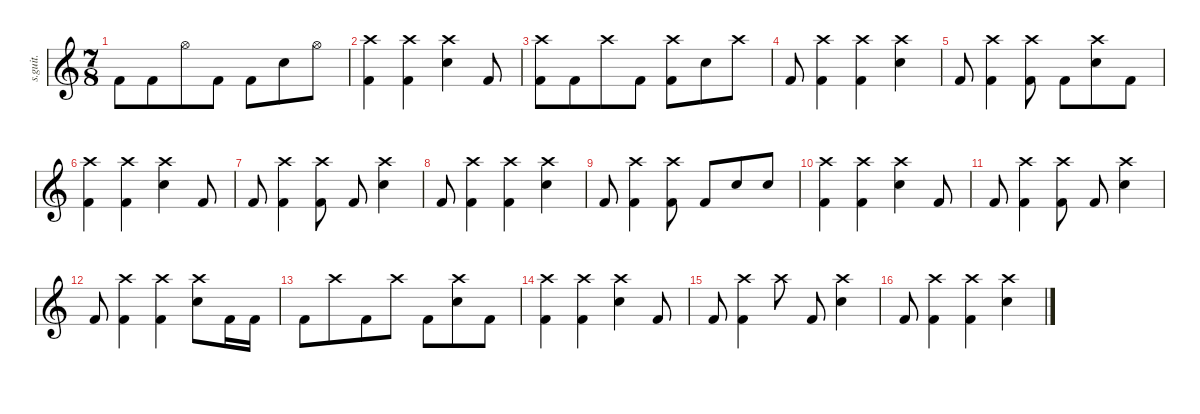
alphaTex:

\defaultSystemsLayout 4
\hideDynamics
\bracketExtendMode nobrackets
\track ("" "s.guit.") {instrument percussion}
\staff {score}
\articulation defaults
\ts (7 8)
\tempo (212 hide)
\clef g2
\ks c "Kick (hit) 2".8{lyrics (0 "") lyrics (1 "") lyrics (2 "") lyrics (3 "") lyrics (4 "") dy f} "Kick (hit) 2".8{lyrics (0 "") lyrics (1 "") lyrics (2 "") lyrics (3 "") lyrics (4 "")} "Hi-Hat (open)".8{lyrics (0 "") lyrics (1 "") lyrics (2 "") lyrics (3 "") lyrics (4 "")} "Kick (hit) 2".8{lyrics (0 "") lyrics (1 "") lyrics (2 "") lyrics (3 "") lyrics (4 "")} "Kick (hit) 2".8{lyrics (0 "") lyrics (1 "") lyrics (2 "") lyrics (3 "") lyrics (4 "")} "Snare (hit) 2".8{lyrics (0 "") lyrics (1 "") lyrics (2 "") lyrics (3 "") lyrics (4 "")} "Hi-Hat (open)".8{lyrics (0 "") lyrics (1 "") lyrics (2 "") lyrics (3 "") lyrics (4 "")}
|
("Kick (hit) 2" "Crash high (hit)").4{lyrics (0 "") lyrics (1 "") lyrics (2 "") lyrics (3 "") lyrics (4 "")} ("Kick (hit) 2" "Crash high (hit)").4{lyrics (0 "") lyrics (1 "") lyrics (2 "") lyrics (3 "") lyrics (4 "")} ("Snare (hit) 2" "Crash high (hit)").4{lyrics (0 "") lyrics (1 "") lyrics (2 "") lyrics (3 "") lyrics (4 "")} "Kick (hit) 2".8{lyrics (0 "") lyrics (1 "") lyrics (2 "") lyrics (3 "") lyrics (4 "")} |
("Kick (hit) 2" "Crash high (hit)").8{lyrics (0 "") lyrics (1 "") lyrics (2 "") lyrics (3 "") lyrics (4 "")} "Kick (hit) 2".8{lyrics (0 "") lyrics (1 "") lyrics (2 "") lyrics (3 "") lyrics (4 "")} "Crash high (hit)".8{lyrics (0 "") lyrics (1 "") lyrics (2 "") lyrics (3 "") lyrics (4 "")} "Kick (hit) 2".8{lyrics (0 "") lyrics (1 "") lyrics (2 "") lyrics (3 "") lyrics (4 "")} ("Kick (hit) 2" "Crash high (hit)").8{lyrics (0 "") lyrics (1 "") lyrics (2 "") lyrics (3 "") lyrics (4 "")} "Snare (hit) 2".8{lyrics (0 "") lyrics (1 "") lyrics (2 "") lyrics (3 "") lyrics (4 "")} "Crash high (hit)".8{lyrics (0 "") lyrics (1 "") lyrics (2 "") lyrics (3 "") lyrics (4 "")} |
"Kick (hit) 2".8{lyrics (0 "") lyrics (1 "") lyrics (2 "") lyrics (3 "") lyrics (4 "")} ("Kick (hit) 2" "Crash high (hit)").4{lyrics (0 "") lyrics (1 "") lyrics (2 "") lyrics (3 "") lyrics (4 "")} ("Kick (hit) 2" "Crash high (hit)").4{lyrics (0 "") lyrics (1 "") lyrics (2 "") lyrics (3 "") lyrics (4 "")} ("Snare (hit) 2" "Crash high (hit)").4{lyrics (0 "") lyrics (1 "") lyrics (2 "") lyrics (3 "") lyrics (4 "")} |
"Kick (hit) 2".8{lyrics (0 "") lyrics (1 "") lyrics (2 "") lyrics (3 "") lyrics (4 "")} ("Kick (hit) 2" "Crash high (hit)").4{lyrics (0 "") lyrics (1 "") lyrics (2 "") lyrics (3 "") lyrics (4 "")} ("Kick (hit) 2" "Crash high (hit)").8{lyrics (0 "") lyrics (1 "") lyrics (2 "") lyrics (3 "") lyrics (4 "")} "Kick (hit) 2".8{lyrics (0 "") lyrics (1 "") lyrics (2 "") lyrics (3 "") lyrics (4 "")} ("Snare (hit) 2" "Crash high (hit)").8{lyrics (0 "") lyrics (1 "") lyrics (2 "") lyrics (3 "") lyrics (4 "")} "Kick (hit) 2".8{lyrics (0 "") lyrics (1 "") lyrics (2 "") lyrics (3 "") lyrics (4 "")} |
("Kick (hit) 2" "Crash high (hit)").4{lyrics (0 "") lyrics (1 "") lyrics (2 "") lyrics (3 "") lyrics (4 "")} ("Kick (hit) 2" "Crash high (hit)").4{lyrics (0 "") lyrics (1 "") lyrics (2 "") lyrics (3 "") lyrics (4 "")} ("Snare (hit) 2" "Crash high (hit)").4{lyrics (0 "") lyrics (1 "") lyrics (2 "") lyrics (3 "") lyrics (4 "")} "Kick (hit) 2".8{lyrics (0 "") lyrics (1 "") lyrics (2 "") lyrics (3 "") lyrics (4 "")} |
"Kick (hit) 2".8{lyrics (0 "") lyrics (1 "") lyrics (2 "") lyrics (3 "") lyrics (4 "")} ("Kick (hit) 2" "Crash high (hit)").4{lyrics (0 "") lyrics (1 "") lyrics (2 "") lyrics (3 "") lyrics (4 "")} ("Kick (hit) 2" "Crash high (hit)").8{lyrics (0 "") lyrics (1 "") lyrics (2 "") lyrics (3 "") lyrics (4 "")} "Kick (hit) 2".8{lyrics (0 "") lyrics (1 "") lyrics (2 "") lyrics (3 "") lyrics (4 "")} ("Snare (hit) 2" "Crash high (hit)").4{lyrics (0 "") lyrics (1 "") lyrics (2 "") lyrics (3 "") lyrics (4 "")} |
"Kick (hit) 2".8{lyrics (0 "") lyrics (1 "") lyrics (2 "") lyrics (3 "") lyrics (4 "")} ("Kick (hit) 2" "Crash high (hit)").4{lyrics (0 "") lyrics (1 "") lyrics (2 "") lyrics (3 "") lyrics (4 "")} ("Kick (hit) 2" "Crash high (hit)").4{lyrics (0 "") lyrics (1 "") lyrics (2 "") lyrics (3 "") lyrics (4 "")} ("Snare (hit) 2" "Crash high (hit)").4{lyrics (0 "") lyrics (1 "") lyrics (2 "") lyrics (3 "") lyrics (4 "")} |
"Kick (hit) 2".8{lyrics (0 "") lyrics (1 "") lyrics (2 "") lyrics (3 "") lyrics (4 "")} ("Kick (hit) 2" "Crash high (hit)").4{lyrics (0 "") lyrics (1 "") lyrics (2 "") lyrics (3 "") lyrics (4 "")} ("Kick (hit) 2" "Crash high (hit)").8{lyrics (0 "") lyrics (1 "") lyrics (2 "") lyrics (3 "") lyrics (4 "")} "Kick (hit) 2".8{lyrics (0 "") lyrics (1 "") lyrics (2 "") lyrics (3 "") lyrics (4 "")} "Snare (hit) 2".8{lyrics (0 "") lyrics (1 "") lyrics (2 "") lyrics (3 "") lyrics (4 "")} "Snare (hit) 2".8{lyrics (0 "") lyrics (1 "") lyrics (2 "") lyrics (3 "") lyrics (4 "")} |
("Kick (hit) 2" "Crash high (hit)").4{lyrics (0 "") lyrics (1 "") lyrics (2 "") lyrics (3 "") lyrics (4 "")} ("Kick (hit) 2" "Crash high (hit)").4{lyrics (0 "") lyrics (1 "") lyrics (2 "") lyrics (3 "") lyrics (4 "")} ("Snare (hit) 2" "Crash high (hit)").4{lyrics (0 "") lyrics (1 "") lyrics (2 "") lyrics (3 "") lyrics (4 "")} "Kick (hit) 2".8{lyrics (0 "") lyrics (1 "") lyrics (2 "") lyrics (3 "") lyrics (4 "")} |
"Kick (hit) 2".8{lyrics (0 "") lyrics (1 "") lyrics (2 "") lyrics (3 "") lyrics (4 "")} ("Kick (hit) 2" "Crash high (hit)").4{lyrics (0 "") lyrics (1 "") lyrics (2 "") lyrics (3 "") lyrics (4 "")} ("Kick (hit) 2" "Crash high (hit)").8{lyrics (0 "") lyrics (1 "") lyrics (2 "") lyrics (3 "") lyrics (4 "")} "Kick (hit) 2".8{lyrics (0 "") lyrics (1 "") lyrics (2 "") lyrics (3 "") lyrics (4 "")} ("Snare (hit) 2" "Crash high (hit)").4{lyrics (0 "") lyrics (1 "") lyrics (2 "") lyrics (3 "") lyrics (4 "")} |
"Kick (hit) 2".8{lyrics (0 "") lyrics (1 "") lyrics (2 "") lyrics (3 "") lyrics (4 "")} ("Kick (hit) 2" "Crash high (hit)").4{lyrics (0 "") lyrics (1 "") lyrics (2 "") lyrics (3 "") lyrics (4 "")} ("Kick (hit) 2" "Crash high (hit)").4{lyrics (0 "") lyrics (1 "") lyrics (2 "") lyrics (3 "") lyrics (4 "")} ("Snare (hit) 2" "Crash high (hit)").8{lyrics (0 "") lyrics (1 "") lyrics (2 "") lyrics (3 "") lyrics (4 "")} "Kick (hit) 2".16{lyrics (0 "") lyrics (1 "") lyrics (2 "") lyrics (3 "") lyrics (4 "")} "Kick (hit) 2".16{lyrics (0 "") lyrics (1 "") lyrics (2 "") lyrics (3 "") lyrics (4 "")} |
"Kick (hit) 2".8{lyrics (0 "") lyrics (1 "") lyrics (2 "") lyrics (3 "") lyrics (4 "")} "Crash high (hit)".8{lyrics (0 "") lyrics (1 "") lyrics (2 "") lyrics (3 "") lyrics (4 "")} "Kick (hit) 2".8{lyrics (0 "") lyrics (1 "") lyrics (2 "") lyrics (3 "") lyrics (4 "")} "Crash high (hit)".8{lyrics (0 "") lyrics (1 "") lyrics (2 "") lyrics (3 "") lyrics (4 "")} "Kick (hit) 2".8{lyrics (0 "") lyrics (1 "") lyrics (2 "") lyrics (3 "") lyrics (4 "")} ("Snare (hit) 2" "Crash high (hit)").8{lyrics (0 "") lyrics (1 "") lyrics (2 "") lyrics (3 "") lyrics (4 "")} "Kick (hit) 2".8{lyrics (0 "") lyrics (1 "") lyrics (2 "") lyrics (3 "") lyrics (4 "")} |
("Kick (hit) 2" "Crash high (hit)").4{lyrics (0 "") lyrics (1 "") lyrics (2 "") lyrics (3 "") lyrics (4 "")} ("Kick (hit) 2" "Crash high (hit)").4{lyrics (0 "") lyrics (1 "") lyrics (2 "") lyrics (3 "") lyrics (4 "")} ("Snare (hit) 2" "Crash high (hit)").4{lyrics (0 "") lyrics (1 "") lyrics (2 "") lyrics (3 "") lyrics (4 "")} "Kick (hit) 2".8{lyrics (0 "") lyrics (1 "") lyrics (2 "") lyrics (3 "") lyrics (4 "")} |
"Kick (hit) 2".8{lyrics (0 "") lyrics (1 "") lyrics (2 "") lyrics (3 "") lyrics (4 "")} ("Kick (hit) 2" "Crash high (hit)").4{lyrics (0 "") lyrics (1 "") lyrics (2 "") lyrics (3 "") lyrics (4 "")} "Crash high (hit)".8{lyrics (0 "") lyrics (1 "") lyrics (2 "") lyrics (3 "") lyrics (4 "")} "Kick (hit) 2".8{lyrics (0 "") lyrics (1 "") lyrics (2 "") lyrics (3 "") lyrics (4 "")} ("Snare (hit) 2" "Crash high (hit)").4{lyrics (0 "") lyrics (1 "") lyrics (2 "") lyrics (3 "") lyrics (4 "")} |
"Kick (hit) 2".8{lyrics (0 "") lyrics (1 "") lyrics (2 "") lyrics (3 "") lyrics (4 "")} ("Kick (hit) 2" "Crash high (hit)").4{lyrics (0 "") lyrics (1 "") lyrics (2 "") lyrics (3 "") lyrics (4 "")} ("Kick (hit) 2" "Crash high (hit)").4{lyrics (0 "") lyrics (1 "") lyrics (2 "") lyrics (3 "") lyrics (4 "")} ("Snare (hit) 2" "Crash high (hit)").4{lyrics (0 "") lyrics (1 "") lyrics (2 "") lyrics (3 "") lyrics (4 "")}
